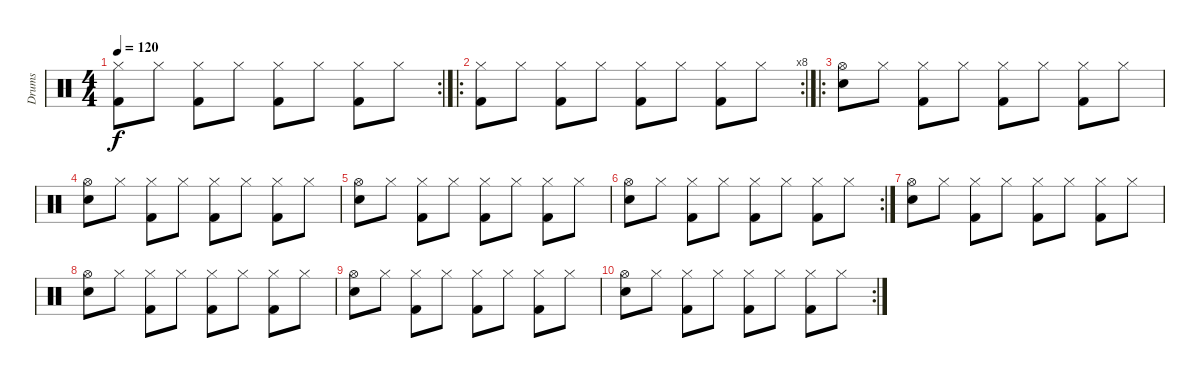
\track ("Drums" "Drums") {instrument percussion}
\staff {score}
\articulation defaults
\rc 2
\ts (4 4)
\tempo 120
\clef neutral
\ks c
("Hi-Hat (closed)" "Kick (hit) 2").8{dy f} "Hi-Hat (closed)".8 ("Hi-Hat (closed)" "Kick (hit) 2").8 "Hi-Hat (closed)".8 ("Hi-Hat (closed)" "Kick (hit) 2").8 "Hi-Hat (closed)".8 ("Hi-Hat (closed)" "Kick (hit) 2").8 "Hi-Hat (closed)".8 |
\ro
\rc 8
("Hi-Hat (closed)" "Kick (hit) 2").8 "Hi-Hat (closed)".8 ("Hi-Hat (closed)" "Kick (hit) 2").8 "Hi-Hat (closed)".8 ("Hi-Hat (closed)" "Kick (hit) 2").8 "Hi-Hat (closed)".8 ("Hi-Hat (closed)" "Kick (hit) 2").8 "Hi-Hat (closed)".8 |
\ro
("Hi-Hat (open)" "Snare (hit) 2").8 "Hi-Hat (closed)".8 ("Hi-Hat (closed)" "Kick (hit) 2").8 "Hi-Hat (closed)".8 ("Hi-Hat (closed)" "Kick (hit) 2").8 "Hi-Hat (closed)".8 ("Hi-Hat (closed)" "Kick (hit) 2").8 "Hi-Hat (closed)".8 |
("Hi-Hat (open)" "Snare (hit) 2").8 "Hi-Hat (closed)".8 ("Hi-Hat (closed)" "Kick (hit) 2").8 "Hi-Hat (closed)".8 ("Hi-Hat (closed)" "Kick (hit) 2").8 "Hi-Hat (closed)".8 ("Hi-Hat (closed)" "Kick (hit) 2").8 "Hi-Hat (closed)".8 |
("Hi-Hat (open)" "Snare (hit) 2").8 "Hi-Hat (closed)".8 ("Hi-Hat (closed)" "Kick (hit) 2").8 "Hi-Hat (closed)".8 ("Hi-Hat (closed)" "Kick (hit) 2").8 "Hi-Hat (closed)".8 ("Hi-Hat (closed)" "Kick (hit) 2").8 "Hi-Hat (closed)".8 |
\rc 2
("Hi-Hat (open)" "Snare (hit) 2").8 "Hi-Hat (closed)".8 ("Hi-Hat (closed)" "Kick (hit) 2").8 "Hi-Hat (closed)".8 ("Hi-Hat (closed)" "Kick (hit) 2").8 "Hi-Hat (closed)".8 ("Hi-Hat (closed)" "Kick (hit) 2").8 "Hi-Hat (closed)".8 |
("Hi-Hat (open)" "Snare (hit) 2").8 "Hi-Hat (closed)".8 ("Hi-Hat (closed)" "Kick (hit) 2").8 "Hi-Hat (closed)".8 ("Hi-Hat (closed)" "Kick (hit) 2").8 "Hi-Hat (closed)".8 ("Hi-Hat (closed)" "Kick (hit) 2").8 "Hi-Hat (closed)".8 |
("Hi-Hat (open)" "Snare (hit) 2").8 "Hi-Hat (closed)".8 ("Hi-Hat (closed)" "Kick (hit) 2").8 "Hi-Hat (closed)".8 ("Hi-Hat (closed)" "Kick (hit) 2").8 "Hi-Hat (closed)".8 ("Hi-Hat (closed)" "Kick (hit) 2").8 "Hi-Hat (closed)".8 |
("Hi-Hat (open)" "Snare (hit) 2").8 "Hi-Hat (closed)".8 ("Hi-Hat (closed)" "Kick (hit) 2").8 "Hi-Hat (closed)".8 ("Hi-Hat (closed)" "Kick (hit) 2").8 "Hi-Hat (closed)".8 ("Hi-Hat (closed)" "Kick (hit) 2").8 "Hi-Hat (closed)".8 |
\rc 2
("Hi-Hat (open)" "Snare (hit) 2").8 "Hi-Hat (closed)".8 ("Hi-Hat (closed)" "Kick (hit) 2").8 "Hi-Hat (closed)".8 ("Hi-Hat (closed)" "Kick (hit) 2").8 "Hi-Hat (closed)".8 ("Hi-Hat (closed)" "Kick (hit) 2").8 "Hi-Hat (closed)".8
